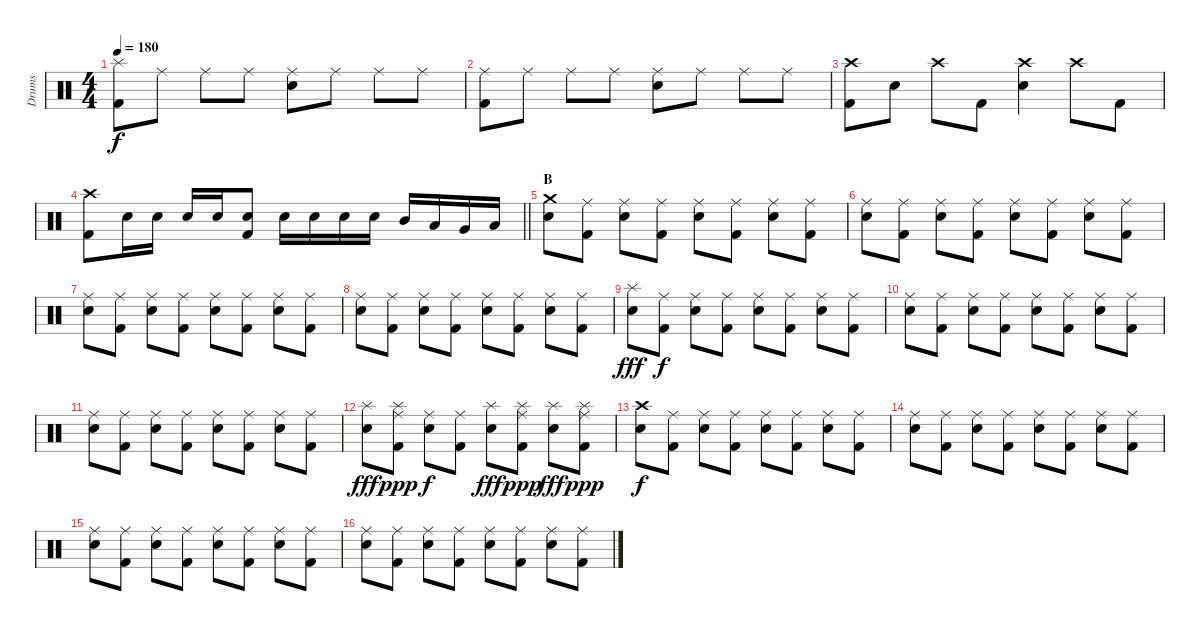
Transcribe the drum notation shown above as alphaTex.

\track ("Drums" "Drums") {instrument percussion}
\staff {score}
\articulation defaults
\ts (4 4)
\tempo 180
\clef neutral
\ks c
("Kick (hit) 2" "Splash (hit)").8{dy f} "Ride (middle)".8 "Ride (middle)".8 "Ride (middle)".8 ("Ride (middle)" "Snare (hit) 2").8 "Ride (middle)".8 "Ride (middle)".8 "Ride (middle)".8 |
("Kick (hit) 2" "Ride (middle)").8 "Ride (middle)".8 "Ride (middle)".8 "Ride (middle)".8 ("Ride (middle)" "Snare (hit) 2").8 "Ride (middle)".8 "Ride (middle)".8 "Ride (middle)".8 |
("Kick (hit) 2" "Crash high (hit)").8 "Snare (hit) 2".8 "Crash high (hit)".8 "Kick (hit) 2".8 ("Crash high (hit)" "Snare (hit) 2").4 "Crash high (hit)".8 "Kick (hit) 2".8 |
\barLineRight lightlight
("Kick (hit) 2" "Crash high (hit)").8 "Snare (hit) 2".16 "Snare (hit) 2".16 "Snare (hit) 2".16 "Snare (hit) 2".16 ("Kick (hit) 2" "Snare (hit) 2").8 "Snare (hit) 2".16 "Snare (hit) 2".16 "Snare (hit) 2".16 "Snare (hit) 2".16 "Mid Tom (hit)".16 "Low Tom (hit)".16 "Very Low Tom (hit)".16 "Low Floor Tom (hit)".16 |
\section ("" "B")
("Crash medium (hit)" "Snare (hit) 2").8 ("Kick (hit) 2" "Ride (middle)").8 ("Ride (middle)" "Snare (hit) 2").8 ("Kick (hit) 2" "Ride (middle)").8 ("Ride (middle)" "Snare (hit) 2").8 ("Kick (hit) 2" "Ride (middle)").8 ("Ride (middle)" "Snare (hit) 2").8 ("Kick (hit) 2" "Ride (middle)").8 |
("Ride (middle)" "Snare (hit) 2").8 ("Kick (hit) 2" "Ride (middle)").8 ("Ride (middle)" "Snare (hit) 2").8 ("Kick (hit) 2" "Ride (middle)").8 ("Ride (middle)" "Snare (hit) 2").8 ("Kick (hit) 2" "Ride (middle)").8 ("Ride (middle)" "Snare (hit) 2").8 ("Kick (hit) 2" "Ride (middle)").8 |
("Ride (middle)" "Snare (hit) 2").8 ("Kick (hit) 2" "Ride (middle)").8 ("Ride (middle)" "Snare (hit) 2").8 ("Kick (hit) 2" "Ride (middle)").8 ("Ride (middle)" "Snare (hit) 2").8 ("Kick (hit) 2" "Ride (middle)").8 ("Ride (middle)" "Snare (hit) 2").8 ("Kick (hit) 2" "Ride (middle)").8 |
("Ride (middle)" "Snare (hit) 2").8 ("Kick (hit) 2" "Ride (middle)").8 ("Ride (middle)" "Snare (hit) 2").8 ("Kick (hit) 2" "Ride (middle)").8 ("Ride (middle)" "Snare (hit) 2").8 ("Kick (hit) 2" "Ride (middle)").8 ("Ride (middle)" "Snare (hit) 2").8 ("Kick (hit) 2" "Ride (middle)").8 |
("Splash (hit)" "Snare (hit) 2").8{dy fff} ("Kick (hit) 2" "Ride (middle)").8{dy f} ("Ride (middle)" "Snare (hit) 2").8 ("Kick (hit) 2" "Ride (middle)").8 ("Ride (middle)" "Snare (hit) 2").8 ("Kick (hit) 2" "Ride (middle)").8 ("Ride (middle)" "Snare (hit) 2").8 ("Kick (hit) 2" "Ride (middle)").8 |
("Ride (middle)" "Snare (hit) 2").8 ("Kick (hit) 2" "Ride (middle)").8 ("Ride (middle)" "Snare (hit) 2").8 ("Kick (hit) 2" "Ride (middle)").8 ("Ride (middle)" "Snare (hit) 2").8 ("Kick (hit) 2" "Ride (middle)").8 ("Ride (middle)" "Snare (hit) 2").8 ("Kick (hit) 2" "Ride (middle)").8 |
("Ride (middle)" "Snare (hit) 2").8 ("Kick (hit) 2" "Ride (middle)").8 ("Ride (middle)" "Snare (hit) 2").8 ("Kick (hit) 2" "Ride (middle)").8 ("Ride (middle)" "Snare (hit) 2").8 ("Kick (hit) 2" "Ride (middle)").8 ("Ride (middle)" "Snare (hit) 2").8 ("Kick (hit) 2" "Ride (middle)").8 |
("Splash (hit)" "Snare (hit) 2").8{dy fff} ("Kick (hit) 2" "Splash (hit)" "Ride (middle)").8{dy ppp} ("Ride (middle)" "Snare (hit) 2").8{dy f} ("Kick (hit) 2" "Ride (middle)").8 ("Splash (hit)" "Snare (hit) 2").8{dy fff} ("Kick (hit) 2" "Splash (hit)" "Ride (middle)").8{dy ppp} ("Splash (hit)" "Snare (hit) 2").8{dy fff} ("Kick (hit) 2" "Splash (hit)" "Ride (middle)").8{dy ppp} |
("Crash high (hit)" "Snare (hit) 2").8{dy f} ("Kick (hit) 2" "Ride (middle)").8 ("Ride (middle)" "Snare (hit) 2").8 ("Kick (hit) 2" "Ride (middle)").8 ("Ride (middle)" "Snare (hit) 2").8 ("Kick (hit) 2" "Ride (middle)").8 ("Ride (middle)" "Snare (hit) 2").8 ("Kick (hit) 2" "Ride (middle)").8 |
("Ride (middle)" "Snare (hit) 2").8 ("Kick (hit) 2" "Ride (middle)").8 ("Ride (middle)" "Snare (hit) 2").8 ("Kick (hit) 2" "Ride (middle)").8 ("Ride (middle)" "Snare (hit) 2").8 ("Kick (hit) 2" "Ride (middle)").8 ("Ride (middle)" "Snare (hit) 2").8 ("Kick (hit) 2" "Ride (middle)").8 |
("Ride (middle)" "Snare (hit) 2").8 ("Kick (hit) 2" "Ride (middle)").8 ("Ride (middle)" "Snare (hit) 2").8 ("Kick (hit) 2" "Ride (middle)").8 ("Ride (middle)" "Snare (hit) 2").8 ("Kick (hit) 2" "Ride (middle)").8 ("Ride (middle)" "Snare (hit) 2").8 ("Kick (hit) 2" "Ride (middle)").8 |
("Ride (middle)" "Snare (hit) 2").8 ("Kick (hit) 2" "Ride (middle)").8 ("Ride (middle)" "Snare (hit) 2").8 ("Kick (hit) 2" "Ride (middle)").8 ("Ride (middle)" "Snare (hit) 2").8 ("Kick (hit) 2" "Ride (middle)").8 ("Ride (middle)" "Snare (hit) 2").8 ("Kick (hit) 2" "Ride (middle)").8
